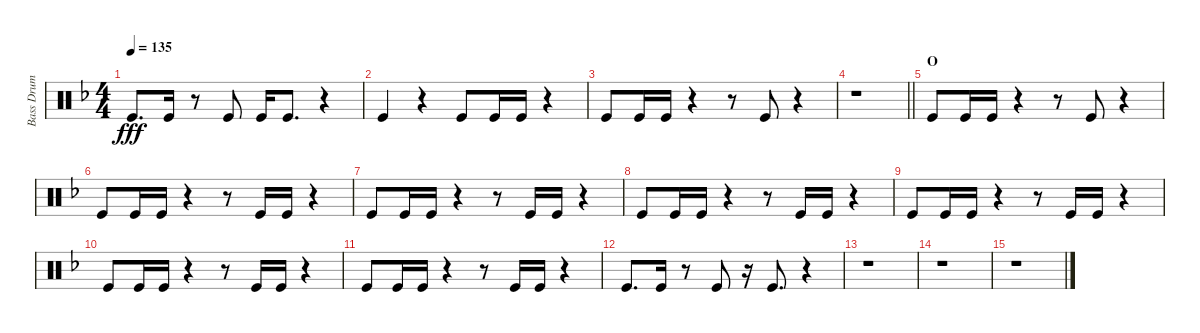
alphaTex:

\track ("Bass Drum" "Bass Drum") {instrument percussion}
\staff {score}
\articulation defaults
\ts (4 4)
\tempo 135
\clef neutral
\ks f "Kick (hit)".8{d dy fff} "Kick (hit)".16
r.8 "Kick (hit)".8 "Kick (hit)".16 "Kick (hit)".8{d} r.4 |
"Kick (hit)".4 r.4 "Kick (hit)".8 "Kick (hit)".16 "Kick (hit)".16 r.4 |
"Kick (hit)".8 "Kick (hit)".16 "Kick (hit)".16 r.4 r.8 "Kick (hit)".8 r.4 |
\barLineRight lightlight
r.1 |
\section ("" "O")
"Kick (hit)".8 "Kick (hit)".16 "Kick (hit)".16 r.4 r.8 "Kick (hit)".8 r.4 |
"Kick (hit)".8 "Kick (hit)".16 "Kick (hit)".16 r.4 r.8 "Kick (hit)".16 "Kick (hit)".16 r.4 |
"Kick (hit)".8 "Kick (hit)".16 "Kick (hit)".16 r.4 r.8 "Kick (hit)".16 "Kick (hit)".16 r.4 |
"Kick (hit)".8 "Kick (hit)".16 "Kick (hit)".16 r.4 r.8 "Kick (hit)".16 "Kick (hit)".16 r.4 |
"Kick (hit)".8 "Kick (hit)".16 "Kick (hit)".16 r.4 r.8 "Kick (hit)".16 "Kick (hit)".16 r.4 |
"Kick (hit)".8 "Kick (hit)".16 "Kick (hit)".16 r.4 r.8 "Kick (hit)".16 "Kick (hit)".16 r.4 |
"Kick (hit)".8 "Kick (hit)".16 "Kick (hit)".16 r.4 r.8 "Kick (hit)".16 "Kick (hit)".16 r.4 |
"Kick (hit)".8{d} "Kick (hit)".16 r.8 "Kick (hit)".8 r.16 "Kick (hit)".8{d} r.4 |
r.1 |
r.1 |
r.1
